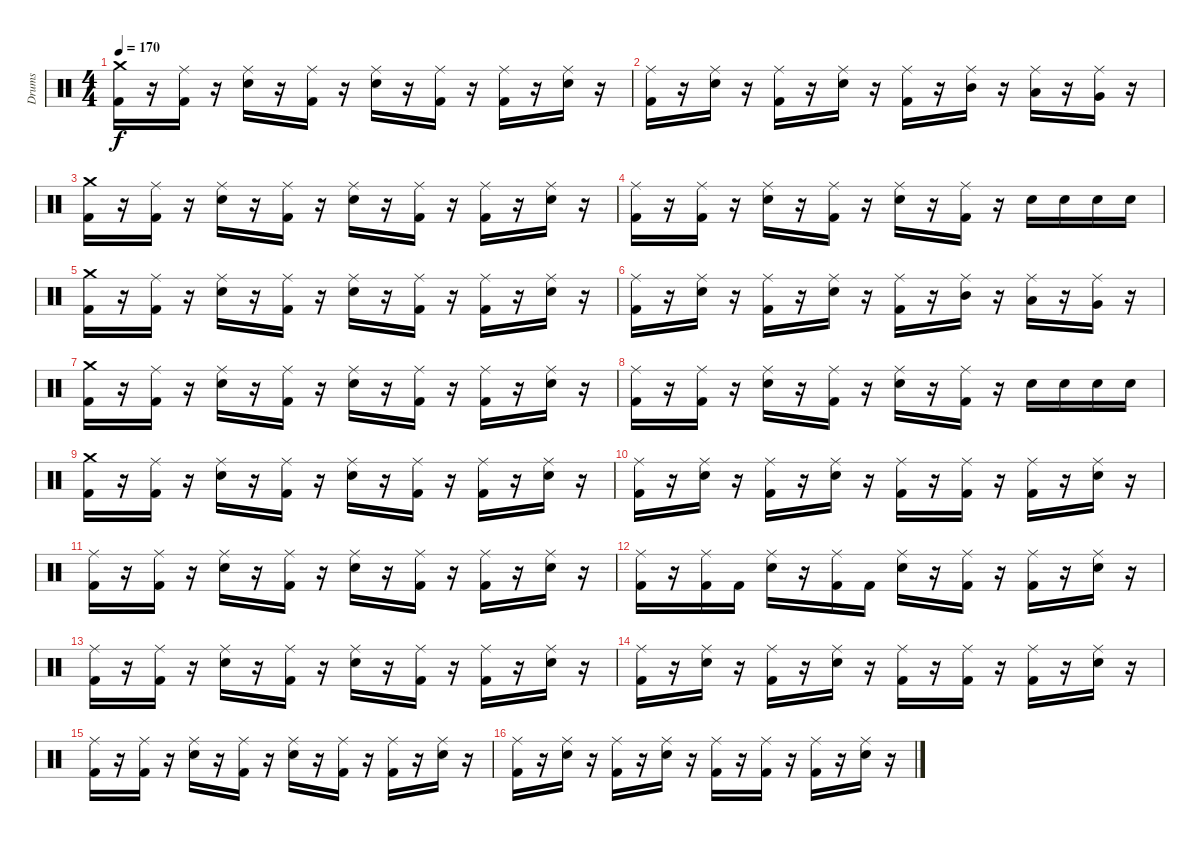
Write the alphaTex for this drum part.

\track ("Drums" "Drums") {instrument percussion}
\staff {score}
\articulation defaults
\ts (4 4)
\tempo 170
\clef neutral
\ks c
("Crash medium (hit)" "Kick (hit) 2").16{dy f} r.16 ("Ride (middle)" "Kick (hit) 2").16 r.16 ("Ride (middle)" "Snare (hit) 2").16 r.16 ("Ride (middle)" "Kick (hit) 2").16 r.16 ("Ride (middle)" "Snare (hit) 2").16 r.16 ("Ride (middle)" "Kick (hit) 2").16 r.16 ("Ride (middle)" "Kick (hit) 2").16 r.16 ("Ride (middle)" "Snare (hit) 2").16 r.16 |
("Ride (middle)" "Kick (hit) 2").16 r.16 ("Ride (middle)" "Snare (hit) 2").16 r.16 ("Ride (middle)" "Kick (hit) 2").16 r.16 ("Ride (middle)" "Snare (hit) 2").16 r.16 ("Ride (middle)" "Kick (hit) 2").16 r.16 ("Ride (middle)" "Mid Tom (hit)").16 r.16 ("Ride (middle)" "Low Tom (hit)").16 r.16 ("Ride (middle)" "Very Low Tom (hit)").16 r.16 |
("Crash medium (hit)" "Kick (hit) 2").16 r.16 ("Ride (middle)" "Kick (hit) 2").16 r.16 ("Ride (middle)" "Snare (hit) 2").16 r.16 ("Ride (middle)" "Kick (hit) 2").16 r.16 ("Ride (middle)" "Snare (hit) 2").16 r.16 ("Ride (middle)" "Kick (hit) 2").16 r.16 ("Ride (middle)" "Kick (hit) 2").16 r.16 ("Ride (middle)" "Snare (hit) 2").16 r.16 |
("Ride (middle)" "Kick (hit) 2").16 r.16 ("Ride (middle)" "Kick (hit) 2").16 r.16 ("Ride (middle)" "Snare (hit) 2").16 r.16 ("Ride (middle)" "Kick (hit) 2").16 r.16 ("Ride (middle)" "Snare (hit) 2").16 r.16 ("Ride (middle)" "Kick (hit) 2").16 r.16 "Snare (hit) 2".16 "Snare (hit) 2".16 "Snare (hit) 2".16 "Snare (hit) 2".16 |
("Crash medium (hit)" "Kick (hit) 2").16 r.16 ("Ride (middle)" "Kick (hit) 2").16 r.16 ("Ride (middle)" "Snare (hit) 2").16 r.16 ("Ride (middle)" "Kick (hit) 2").16 r.16 ("Ride (middle)" "Snare (hit) 2").16 r.16 ("Ride (middle)" "Kick (hit) 2").16 r.16 ("Ride (middle)" "Kick (hit) 2").16 r.16 ("Ride (middle)" "Snare (hit) 2").16 r.16 |
("Ride (middle)" "Kick (hit) 2").16 r.16 ("Ride (middle)" "Snare (hit) 2").16 r.16 ("Ride (middle)" "Kick (hit) 2").16 r.16 ("Ride (middle)" "Snare (hit) 2").16 r.16 ("Ride (middle)" "Kick (hit) 2").16 r.16 ("Ride (middle)" "Mid Tom (hit)").16 r.16 ("Ride (middle)" "Low Tom (hit)").16 r.16 ("Ride (middle)" "Very Low Tom (hit)").16 r.16 |
("Crash medium (hit)" "Kick (hit) 2").16 r.16 ("Ride (middle)" "Kick (hit) 2").16 r.16 ("Ride (middle)" "Snare (hit) 2").16 r.16 ("Ride (middle)" "Kick (hit) 2").16 r.16 ("Ride (middle)" "Snare (hit) 2").16 r.16 ("Ride (middle)" "Kick (hit) 2").16 r.16 ("Ride (middle)" "Kick (hit) 2").16 r.16 ("Ride (middle)" "Snare (hit) 2").16 r.16 |
("Ride (middle)" "Kick (hit) 2").16 r.16 ("Ride (middle)" "Kick (hit) 2").16 r.16 ("Ride (middle)" "Snare (hit) 2").16 r.16 ("Ride (middle)" "Kick (hit) 2").16 r.16 ("Ride (middle)" "Snare (hit) 2").16 r.16 ("Ride (middle)" "Kick (hit) 2").16 r.16 "Snare (hit) 2".16 "Snare (hit) 2".16 "Snare (hit) 2".16 "Snare (hit) 2".16 |
("Crash medium (hit)" "Kick (hit) 2").16 r.16 ("Ride (middle)" "Kick (hit) 2").16 r.16 ("Ride (middle)" "Snare (hit) 2").16 r.16 ("Ride (middle)" "Kick (hit) 2").16 r.16 ("Ride (middle)" "Snare (hit) 2").16 r.16 ("Ride (middle)" "Kick (hit) 2").16 r.16 ("Ride (middle)" "Kick (hit) 2").16 r.16 ("Ride (middle)" "Snare (hit) 2").16 r.16 |
("Ride (middle)" "Kick (hit) 2").16 r.16 ("Ride (middle)" "Snare (hit) 2").16 r.16 ("Ride (middle)" "Kick (hit) 2").16 r.16 ("Ride (middle)" "Snare (hit) 2").16 r.16 ("Ride (middle)" "Kick (hit) 2").16 r.16 ("Ride (middle)" "Kick (hit) 2").16 r.16 ("Ride (middle)" "Kick (hit) 2").16 r.16 ("Ride (middle)" "Snare (hit) 2").16 r.16 |
("Ride (middle)" "Kick (hit) 2").16 r.16 ("Ride (middle)" "Kick (hit) 2").16 r.16 ("Ride (middle)" "Snare (hit) 2").16 r.16 ("Ride (middle)" "Kick (hit) 2").16 r.16 ("Ride (middle)" "Snare (hit) 2").16 r.16 ("Ride (middle)" "Kick (hit) 2").16 r.16 ("Ride (middle)" "Kick (hit) 2").16 r.16 ("Ride (middle)" "Snare (hit) 2").16 r.16 |
("Ride (middle)" "Kick (hit) 2").16 r.16 ("Ride (middle)" "Kick (hit) 2").16 "Kick (hit) 2".16 ("Ride (middle)" "Snare (hit) 2").16 r.16 ("Ride (middle)" "Kick (hit) 2").16 "Kick (hit) 2".16 ("Ride (middle)" "Snare (hit) 2").16 r.16 ("Ride (middle)" "Kick (hit) 2").16 r.16 ("Ride (middle)" "Kick (hit) 2").16 r.16 ("Ride (middle)" "Snare (hit) 2").16 r.16 |
("Ride (middle)" "Kick (hit) 2").16 r.16 ("Ride (middle)" "Kick (hit) 2").16 r.16 ("Ride (middle)" "Snare (hit) 2").16 r.16 ("Ride (middle)" "Kick (hit) 2").16 r.16 ("Ride (middle)" "Snare (hit) 2").16 r.16 ("Ride (middle)" "Kick (hit) 2").16 r.16 ("Ride (middle)" "Kick (hit) 2").16 r.16 ("Ride (middle)" "Snare (hit) 2").16 r.16 |
("Ride (middle)" "Kick (hit) 2").16 r.16 ("Ride (middle)" "Snare (hit) 2").16 r.16 ("Ride (middle)" "Kick (hit) 2").16 r.16 ("Ride (middle)" "Snare (hit) 2").16 r.16 ("Ride (middle)" "Kick (hit) 2").16 r.16 ("Ride (middle)" "Kick (hit) 2").16 r.16 ("Ride (middle)" "Kick (hit) 2").16 r.16 ("Ride (middle)" "Snare (hit) 2").16 r.16 |
("Ride (middle)" "Kick (hit) 2").16 r.16 ("Ride (middle)" "Kick (hit) 2").16 r.16 ("Ride (middle)" "Snare (hit) 2").16 r.16 ("Ride (middle)" "Kick (hit) 2").16 r.16 ("Ride (middle)" "Snare (hit) 2").16 r.16 ("Ride (middle)" "Kick (hit) 2").16 r.16 ("Ride (middle)" "Kick (hit) 2").16 r.16 ("Ride (middle)" "Snare (hit) 2").16 r.16 |
("Ride (middle)" "Kick (hit) 2").16 r.16 ("Ride (middle)" "Snare (hit) 2").16 r.16 ("Ride (middle)" "Kick (hit) 2").16 r.16 ("Ride (middle)" "Snare (hit) 2").16 r.16 ("Ride (middle)" "Kick (hit) 2").16 r.16 ("Ride (middle)" "Kick (hit) 2").16 r.16 ("Ride (middle)" "Kick (hit) 2").16 r.16 ("Ride (middle)" "Snare (hit) 2").16 r.16
